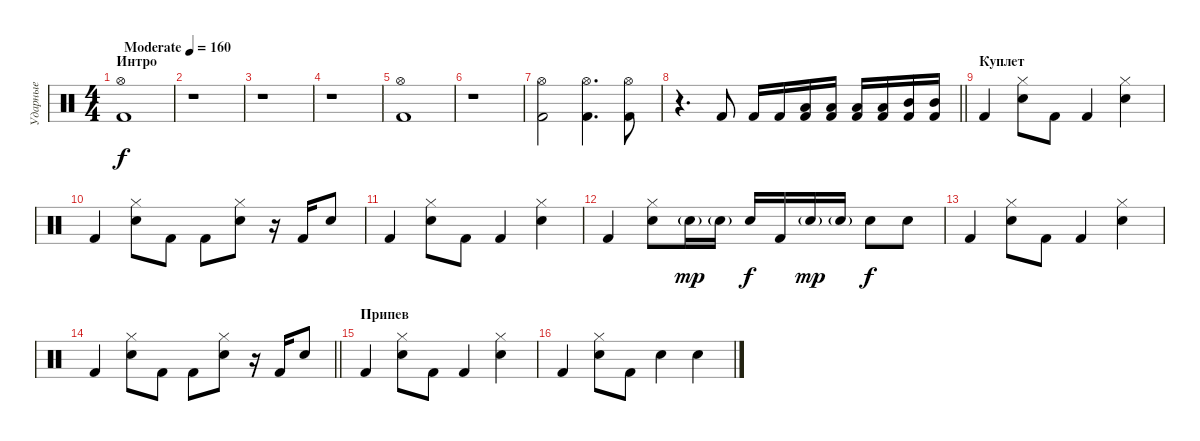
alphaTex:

\track ("Ударные" "Ударные") {instrument percussion}
\staff {score}
\articulation defaults
\ts (4 4)
\section ("" "Интро")
\tempo (160 "Moderate")
\clef neutral
\ks c
("Hi-Hat (open)" "Kick (hit) 2").1{dy f} |
r.1 |
r.1 |
r.1 |
("Hi-Hat (open)" "Kick (hit) 2").1 |
r.1 |
("Hi-Hat (open)" "Kick (hit) 2").2 ("Hi-Hat (open)" "Kick (hit) 2").4{d} ("Hi-Hat (open)" "Kick (hit) 2").8 |
\barLineRight lightlight
r.4{d} "Kick (hit) 2".8 "Kick (hit) 2".16 "Kick (hit) 2".16 ("Low Tom (hit)" "Kick (hit) 2").16 ("Low Tom (hit)" "Kick (hit) 2").16 ("Low Tom (hit)" "Kick (hit) 2").16 ("Low Tom (hit)" "Kick (hit) 2").16 ("Mid Tom (hit)" "Kick (hit) 2").16 ("Mid Tom (hit)" "Kick (hit) 2").16 |
\section ("" "Куплет")
"Kick (hit) 2".4 ("Hi-Hat (closed)" "Snare (hit) 2").8 "Kick (hit) 2".8 "Kick (hit) 2".4 ("Hi-Hat (closed)" "Snare (hit) 2").4 |
"Kick (hit) 2".4 ("Hi-Hat (closed)" "Snare (hit) 2").8 "Kick (hit) 2".8 "Kick (hit) 2".8 ("Hi-Hat (closed)" "Snare (hit) 2").8 r.16 "Kick (hit) 2".16 "Snare (hit) 2".8 |
"Kick (hit) 2".4 ("Hi-Hat (closed)" "Snare (hit) 2").8 "Kick (hit) 2".8 "Kick (hit) 2".4 ("Hi-Hat (closed)" "Snare (hit) 2").4 |
"Kick (hit) 2".4 ("Hi-Hat (closed)" "Snare (hit) 2").8 "Snare (hit) 2"{g}.16{dy mp} "Snare (hit) 2"{g}.16 "Snare (hit) 2".16{dy f} "Kick (hit) 2".16 "Snare (hit) 2"{g}.16{dy mp} "Snare (hit) 2"{g}.16 "Snare (hit) 2".8{dy f} "Snare (hit) 2".8 |
"Kick (hit) 2".4 ("Hi-Hat (closed)" "Snare (hit) 2").8 "Kick (hit) 2".8 "Kick (hit) 2".4 ("Hi-Hat (closed)" "Snare (hit) 2").4 |
\barLineRight lightlight "Kick (hit) 2".4
("Hi-Hat (closed)" "Snare (hit) 2").8 "Kick (hit) 2".8 "Kick (hit) 2".8 ("Hi-Hat (closed)" "Snare (hit) 2").8 r.16 "Kick (hit) 2".16 "Snare (hit) 2".8 |
\section ("" "Припев")
"Kick (hit) 2".4 ("Hi-Hat (closed)" "Snare (hit) 2").8 "Kick (hit) 2".8 "Kick (hit) 2".4 ("Hi-Hat (closed)" "Snare (hit) 2").4 |
"Kick (hit) 2".4 ("Hi-Hat (closed)" "Snare (hit) 2").8 "Kick (hit) 2".8 "Snare (hit) 2".4 "Snare (hit) 2".4
